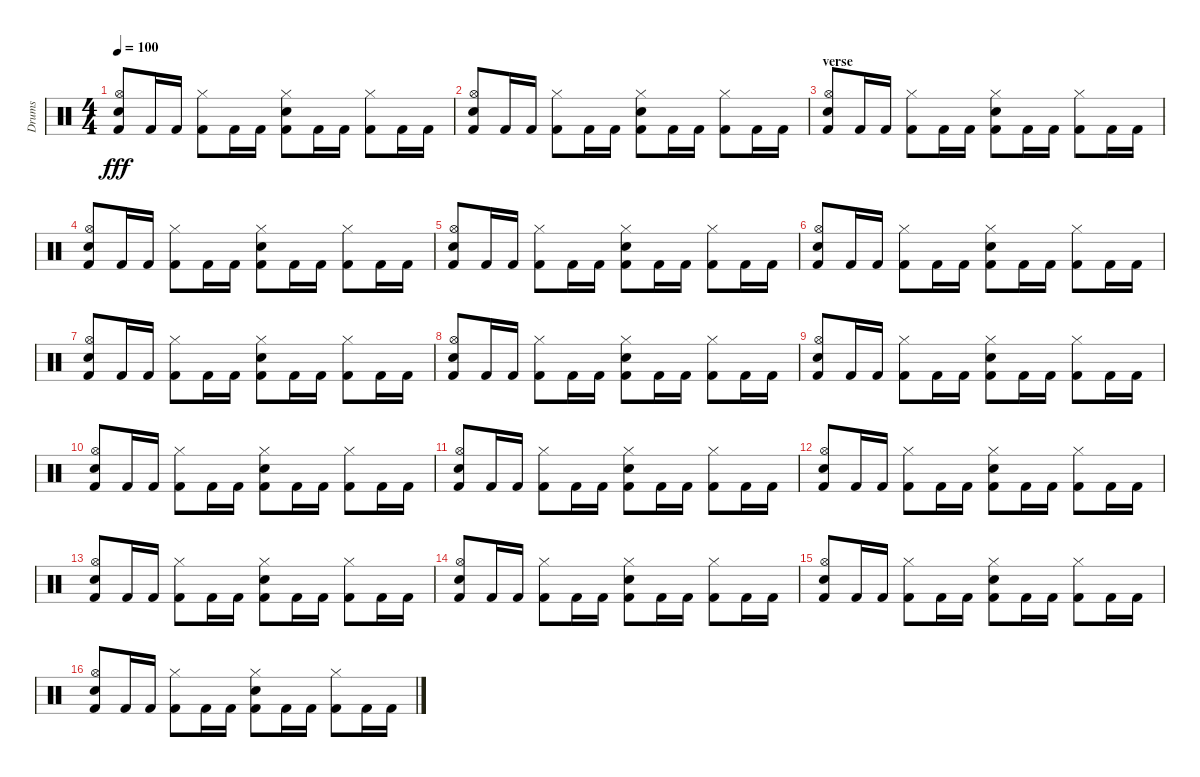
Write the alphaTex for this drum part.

\track ("Drums" "Drums") {instrument percussion}
\staff {score}
\articulation defaults
\ts (4 4)
\tempo 100
\clef neutral
\ks c
("Electric Snare (hit)" "Hi-Hat (open)" "Kick (hit) 2").8{dy fff} "Kick (hit) 2".16 "Kick (hit) 2".16 ("Hi-Hat (closed)" "Kick (hit) 2").8 "Kick (hit) 2".16 "Kick (hit) 2".16 ("Hi-Hat (closed)" "Electric Snare (hit)" "Kick (hit) 2").8 "Kick (hit) 2".16 "Kick (hit) 2".16 ("Hi-Hat (closed)" "Kick (hit) 2").8 "Kick (hit) 2".16 "Kick (hit) 2".16 |
("Electric Snare (hit)" "Hi-Hat (open)" "Kick (hit) 2").8 "Kick (hit) 2".16 "Kick (hit) 2".16 ("Hi-Hat (closed)" "Kick (hit) 2").8 "Kick (hit) 2".16 "Kick (hit) 2".16 ("Hi-Hat (closed)" "Electric Snare (hit)" "Kick (hit) 2").8 "Kick (hit) 2".16 "Kick (hit) 2".16 ("Hi-Hat (closed)" "Kick (hit) 2").8 "Kick (hit) 2".16 "Kick (hit) 2".16 |
\section ("" "verse")
("Electric Snare (hit)" "Hi-Hat (open)" "Kick (hit) 2").8 "Kick (hit) 2".16 "Kick (hit) 2".16 ("Hi-Hat (closed)" "Kick (hit) 2").8 "Kick (hit) 2".16 "Kick (hit) 2".16 ("Hi-Hat (closed)" "Electric Snare (hit)" "Kick (hit) 2").8 "Kick (hit) 2".16 "Kick (hit) 2".16 ("Hi-Hat (closed)" "Kick (hit) 2").8 "Kick (hit) 2".16 "Kick (hit) 2".16 |
("Electric Snare (hit)" "Hi-Hat (open)" "Kick (hit) 2").8 "Kick (hit) 2".16 "Kick (hit) 2".16 ("Hi-Hat (closed)" "Kick (hit) 2").8 "Kick (hit) 2".16 "Kick (hit) 2".16 ("Hi-Hat (closed)" "Electric Snare (hit)" "Kick (hit) 2").8 "Kick (hit) 2".16 "Kick (hit) 2".16 ("Hi-Hat (closed)" "Kick (hit) 2").8 "Kick (hit) 2".16 "Kick (hit) 2".16 |
("Electric Snare (hit)" "Hi-Hat (open)" "Kick (hit) 2").8 "Kick (hit) 2".16 "Kick (hit) 2".16 ("Hi-Hat (closed)" "Kick (hit) 2").8 "Kick (hit) 2".16 "Kick (hit) 2".16 ("Hi-Hat (closed)" "Electric Snare (hit)" "Kick (hit) 2").8 "Kick (hit) 2".16 "Kick (hit) 2".16 ("Hi-Hat (closed)" "Kick (hit) 2").8 "Kick (hit) 2".16 "Kick (hit) 2".16 |
("Electric Snare (hit)" "Hi-Hat (open)" "Kick (hit) 2").8 "Kick (hit) 2".16 "Kick (hit) 2".16 ("Hi-Hat (closed)" "Kick (hit) 2").8 "Kick (hit) 2".16 "Kick (hit) 2".16 ("Hi-Hat (closed)" "Electric Snare (hit)" "Kick (hit) 2").8 "Kick (hit) 2".16 "Kick (hit) 2".16 ("Hi-Hat (closed)" "Kick (hit) 2").8 "Kick (hit) 2".16 "Kick (hit) 2".16 |
("Electric Snare (hit)" "Hi-Hat (open)" "Kick (hit) 2").8 "Kick (hit) 2".16 "Kick (hit) 2".16 ("Hi-Hat (closed)" "Kick (hit) 2").8 "Kick (hit) 2".16 "Kick (hit) 2".16 ("Hi-Hat (closed)" "Electric Snare (hit)" "Kick (hit) 2").8 "Kick (hit) 2".16 "Kick (hit) 2".16 ("Hi-Hat (closed)" "Kick (hit) 2").8 "Kick (hit) 2".16 "Kick (hit) 2".16 |
("Electric Snare (hit)" "Hi-Hat (open)" "Kick (hit) 2").8 "Kick (hit) 2".16 "Kick (hit) 2".16 ("Hi-Hat (closed)" "Kick (hit) 2").8 "Kick (hit) 2".16 "Kick (hit) 2".16 ("Hi-Hat (closed)" "Electric Snare (hit)" "Kick (hit) 2").8 "Kick (hit) 2".16 "Kick (hit) 2".16 ("Hi-Hat (closed)" "Kick (hit) 2").8 "Kick (hit) 2".16 "Kick (hit) 2".16 |
("Electric Snare (hit)" "Hi-Hat (open)" "Kick (hit) 2").8 "Kick (hit) 2".16 "Kick (hit) 2".16 ("Hi-Hat (closed)" "Kick (hit) 2").8 "Kick (hit) 2".16 "Kick (hit) 2".16 ("Hi-Hat (closed)" "Electric Snare (hit)" "Kick (hit) 2").8 "Kick (hit) 2".16 "Kick (hit) 2".16 ("Hi-Hat (closed)" "Kick (hit) 2").8 "Kick (hit) 2".16 "Kick (hit) 2".16 |
("Electric Snare (hit)" "Hi-Hat (open)" "Kick (hit) 2").8 "Kick (hit) 2".16 "Kick (hit) 2".16 ("Hi-Hat (closed)" "Kick (hit) 2").8 "Kick (hit) 2".16 "Kick (hit) 2".16 ("Hi-Hat (closed)" "Electric Snare (hit)" "Kick (hit) 2").8 "Kick (hit) 2".16 "Kick (hit) 2".16 ("Hi-Hat (closed)" "Kick (hit) 2").8 "Kick (hit) 2".16 "Kick (hit) 2".16 |
("Electric Snare (hit)" "Hi-Hat (open)" "Kick (hit) 2").8 "Kick (hit) 2".16 "Kick (hit) 2".16 ("Hi-Hat (closed)" "Kick (hit) 2").8 "Kick (hit) 2".16 "Kick (hit) 2".16 ("Hi-Hat (closed)" "Electric Snare (hit)" "Kick (hit) 2").8 "Kick (hit) 2".16 "Kick (hit) 2".16 ("Hi-Hat (closed)" "Kick (hit) 2").8 "Kick (hit) 2".16 "Kick (hit) 2".16 |
("Electric Snare (hit)" "Hi-Hat (open)" "Kick (hit) 2").8 "Kick (hit) 2".16 "Kick (hit) 2".16 ("Hi-Hat (closed)" "Kick (hit) 2").8 "Kick (hit) 2".16 "Kick (hit) 2".16 ("Hi-Hat (closed)" "Electric Snare (hit)" "Kick (hit) 2").8 "Kick (hit) 2".16 "Kick (hit) 2".16 ("Hi-Hat (closed)" "Kick (hit) 2").8 "Kick (hit) 2".16 "Kick (hit) 2".16 |
("Electric Snare (hit)" "Hi-Hat (open)" "Kick (hit) 2").8 "Kick (hit) 2".16 "Kick (hit) 2".16 ("Hi-Hat (closed)" "Kick (hit) 2").8 "Kick (hit) 2".16 "Kick (hit) 2".16 ("Hi-Hat (closed)" "Electric Snare (hit)" "Kick (hit) 2").8 "Kick (hit) 2".16 "Kick (hit) 2".16 ("Hi-Hat (closed)" "Kick (hit) 2").8 "Kick (hit) 2".16 "Kick (hit) 2".16 |
("Electric Snare (hit)" "Hi-Hat (open)" "Kick (hit) 2").8 "Kick (hit) 2".16 "Kick (hit) 2".16 ("Hi-Hat (closed)" "Kick (hit) 2").8 "Kick (hit) 2".16 "Kick (hit) 2".16 ("Hi-Hat (closed)" "Electric Snare (hit)" "Kick (hit) 2").8 "Kick (hit) 2".16 "Kick (hit) 2".16 ("Hi-Hat (closed)" "Kick (hit) 2").8 "Kick (hit) 2".16 "Kick (hit) 2".16 |
("Electric Snare (hit)" "Hi-Hat (open)" "Kick (hit) 2").8 "Kick (hit) 2".16 "Kick (hit) 2".16 ("Hi-Hat (closed)" "Kick (hit) 2").8 "Kick (hit) 2".16 "Kick (hit) 2".16 ("Hi-Hat (closed)" "Electric Snare (hit)" "Kick (hit) 2").8 "Kick (hit) 2".16 "Kick (hit) 2".16 ("Hi-Hat (closed)" "Kick (hit) 2").8 "Kick (hit) 2".16 "Kick (hit) 2".16 |
("Electric Snare (hit)" "Hi-Hat (open)" "Kick (hit) 2").8 "Kick (hit) 2".16 "Kick (hit) 2".16 ("Hi-Hat (closed)" "Kick (hit) 2").8 "Kick (hit) 2".16 "Kick (hit) 2".16 ("Hi-Hat (closed)" "Electric Snare (hit)" "Kick (hit) 2").8 "Kick (hit) 2".16 "Kick (hit) 2".16 ("Hi-Hat (closed)" "Kick (hit) 2").8 "Kick (hit) 2".16 "Kick (hit) 2".16
